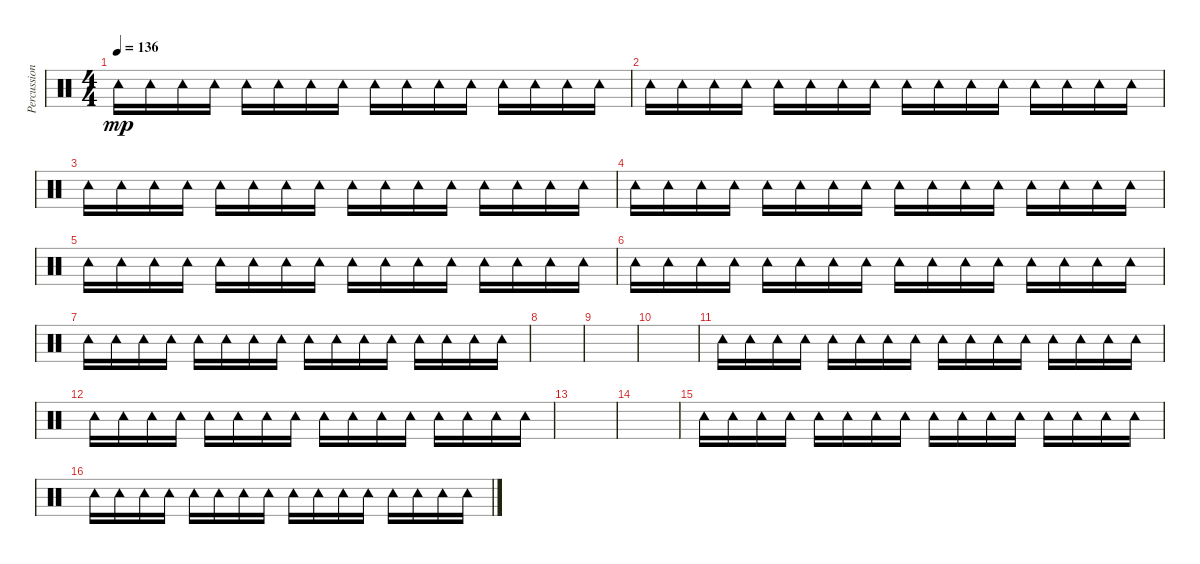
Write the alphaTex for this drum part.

\track ("Percussion" "Percussion") {instrument percussion}
\staff {score}
\articulation defaults
\ts (4 4)
\tempo 136
\clef neutral
\ks c "Tambourine (hit)".16{dy mp} "Tambourine (hit)".16 "Tambourine (hit)".16 "Tambourine (hit)".16 "Tambourine (hit)".16 "Tambourine (hit)".16 "Tambourine (hit)".16 "Tambourine (hit)".16 "Tambourine (hit)".16 "Tambourine (hit)".16 "Tambourine (hit)".16 "Tambourine (hit)".16 "Tambourine (hit)".16 "Tambourine (hit)".16 "Tambourine (hit)".16 "Tambourine (hit)".16
|
"Tambourine (hit)".16 "Tambourine (hit)".16 "Tambourine (hit)".16 "Tambourine (hit)".16 "Tambourine (hit)".16 "Tambourine (hit)".16 "Tambourine (hit)".16 "Tambourine (hit)".16 "Tambourine (hit)".16 "Tambourine (hit)".16 "Tambourine (hit)".16 "Tambourine (hit)".16 "Tambourine (hit)".16 "Tambourine (hit)".16 "Tambourine (hit)".16 "Tambourine (hit)".16 |
"Tambourine (hit)".16 "Tambourine (hit)".16 "Tambourine (hit)".16 "Tambourine (hit)".16 "Tambourine (hit)".16 "Tambourine (hit)".16 "Tambourine (hit)".16 "Tambourine (hit)".16 "Tambourine (hit)".16 "Tambourine (hit)".16 "Tambourine (hit)".16 "Tambourine (hit)".16 "Tambourine (hit)".16 "Tambourine (hit)".16 "Tambourine (hit)".16 "Tambourine (hit)".16 |
"Tambourine (hit)".16 "Tambourine (hit)".16 "Tambourine (hit)".16 "Tambourine (hit)".16 "Tambourine (hit)".16 "Tambourine (hit)".16 "Tambourine (hit)".16 "Tambourine (hit)".16 "Tambourine (hit)".16 "Tambourine (hit)".16 "Tambourine (hit)".16 "Tambourine (hit)".16 "Tambourine (hit)".16 "Tambourine (hit)".16 "Tambourine (hit)".16 "Tambourine (hit)".16 |
"Tambourine (hit)".16 "Tambourine (hit)".16 "Tambourine (hit)".16 "Tambourine (hit)".16 "Tambourine (hit)".16 "Tambourine (hit)".16 "Tambourine (hit)".16 "Tambourine (hit)".16 "Tambourine (hit)".16 "Tambourine (hit)".16 "Tambourine (hit)".16 "Tambourine (hit)".16 "Tambourine (hit)".16 "Tambourine (hit)".16 "Tambourine (hit)".16 "Tambourine (hit)".16 |
"Tambourine (hit)".16 "Tambourine (hit)".16 "Tambourine (hit)".16 "Tambourine (hit)".16 "Tambourine (hit)".16 "Tambourine (hit)".16 "Tambourine (hit)".16 "Tambourine (hit)".16 "Tambourine (hit)".16 "Tambourine (hit)".16 "Tambourine (hit)".16 "Tambourine (hit)".16 "Tambourine (hit)".16 "Tambourine (hit)".16 "Tambourine (hit)".16 "Tambourine (hit)".16 |
"Tambourine (hit)".16 "Tambourine (hit)".16 "Tambourine (hit)".16 "Tambourine (hit)".16 "Tambourine (hit)".16 "Tambourine (hit)".16 "Tambourine (hit)".16 "Tambourine (hit)".16 "Tambourine (hit)".16 "Tambourine (hit)".16 "Tambourine (hit)".16 "Tambourine (hit)".16 "Tambourine (hit)".16 "Tambourine (hit)".16 "Tambourine (hit)".16 "Tambourine (hit)".16 |
|
|
|
"Tambourine (hit)".16 "Tambourine (hit)".16 "Tambourine (hit)".16 "Tambourine (hit)".16 "Tambourine (hit)".16 "Tambourine (hit)".16 "Tambourine (hit)".16 "Tambourine (hit)".16 "Tambourine (hit)".16 "Tambourine (hit)".16 "Tambourine (hit)".16 "Tambourine (hit)".16 "Tambourine (hit)".16 "Tambourine (hit)".16 "Tambourine (hit)".16 "Tambourine (hit)".16 |
"Tambourine (hit)".16 "Tambourine (hit)".16 "Tambourine (hit)".16 "Tambourine (hit)".16 "Tambourine (hit)".16 "Tambourine (hit)".16 "Tambourine (hit)".16 "Tambourine (hit)".16 "Tambourine (hit)".16 "Tambourine (hit)".16 "Tambourine (hit)".16 "Tambourine (hit)".16 "Tambourine (hit)".16 "Tambourine (hit)".16 "Tambourine (hit)".16 "Tambourine (hit)".16 |
|
|
"Tambourine (hit)".16 "Tambourine (hit)".16 "Tambourine (hit)".16 "Tambourine (hit)".16 "Tambourine (hit)".16 "Tambourine (hit)".16 "Tambourine (hit)".16 "Tambourine (hit)".16 "Tambourine (hit)".16 "Tambourine (hit)".16 "Tambourine (hit)".16 "Tambourine (hit)".16 "Tambourine (hit)".16 "Tambourine (hit)".16 "Tambourine (hit)".16 "Tambourine (hit)".16 |
"Tambourine (hit)".16 "Tambourine (hit)".16 "Tambourine (hit)".16 "Tambourine (hit)".16 "Tambourine (hit)".16 "Tambourine (hit)".16 "Tambourine (hit)".16 "Tambourine (hit)".16 "Tambourine (hit)".16 "Tambourine (hit)".16 "Tambourine (hit)".16 "Tambourine (hit)".16 "Tambourine (hit)".16 "Tambourine (hit)".16 "Tambourine (hit)".16 "Tambourine (hit)".16
